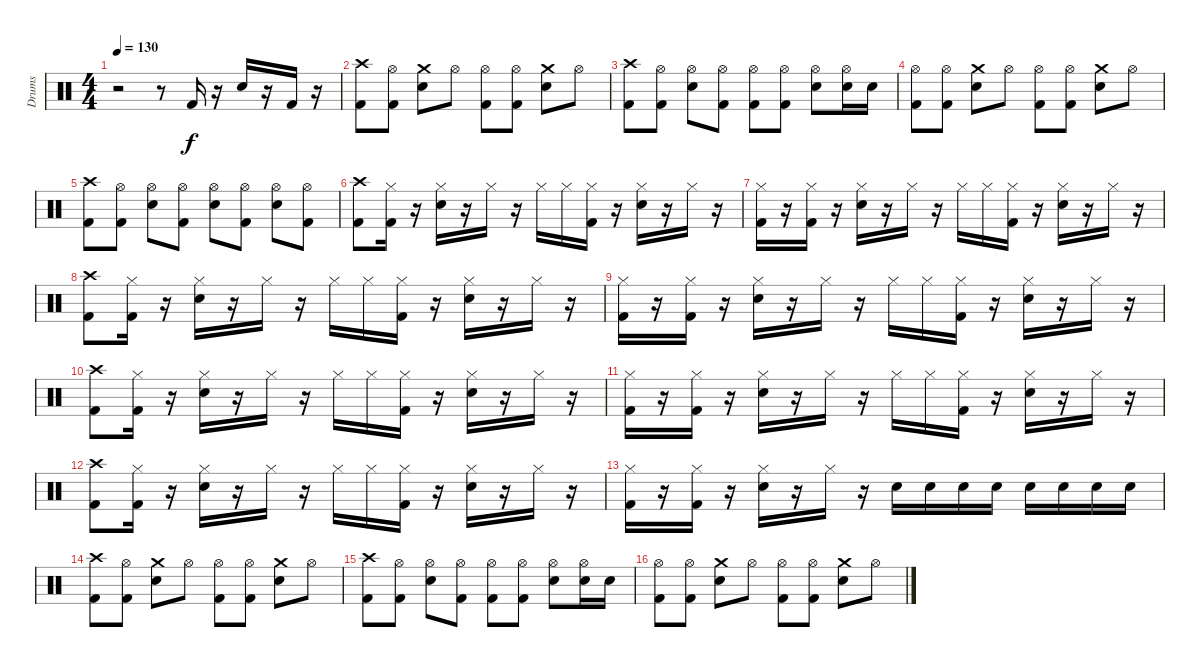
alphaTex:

\track ("Drums" "Drums") {instrument percussion}
\staff {score}
\articulation defaults
\ts (4 4)
\tempo 130
\clef neutral
\ks c
r.2{dy f} r.8 "Kick (hit) 2".16 r.16 "Electric Snare (hit)".16 r.16 "Kick (hit) 2".16 r.16 |
("Kick (hit) 2" "Crash high (hit)").8 ("Kick (hit) 2" "Hi-Hat (open)").8 ("Electric Snare (hit)" "Crash medium (hit)").8 "Hi-Hat (open)".8 ("Kick (hit) 2" "Hi-Hat (open)").8 ("Kick (hit) 2" "Hi-Hat (open)").8 ("Electric Snare (hit)" "Crash medium (hit)").8 "Hi-Hat (open)".8 |
("Kick (hit) 2" "Crash high (hit)").8 ("Kick (hit) 2" "Hi-Hat (open)").8 ("Electric Snare (hit)" "Hi-Hat (open)").8 ("Kick (hit) 2" "Hi-Hat (open)").8 ("Kick (hit) 2" "Hi-Hat (open)").8 ("Kick (hit) 2" "Hi-Hat (open)").8 ("Electric Snare (hit)" "Hi-Hat (open)").8 ("Electric Snare (hit)" "Hi-Hat (open)").16 "Electric Snare (hit)".16 |
("Kick (hit) 2" "Hi-Hat (open)").8 ("Kick (hit) 2" "Hi-Hat (open)").8 ("Electric Snare (hit)" "Crash medium (hit)").8 "Hi-Hat (open)".8 ("Kick (hit) 2" "Hi-Hat (open)").8 ("Kick (hit) 2" "Hi-Hat (open)").8 ("Electric Snare (hit)" "Crash medium (hit)").8 "Hi-Hat (open)".8 |
("Kick (hit) 2" "Crash high (hit)").8 ("Kick (hit) 2" "Hi-Hat (open)").8 ("Electric Snare (hit)" "Hi-Hat (open)").8 ("Kick (hit) 2" "Hi-Hat (open)").8 ("Electric Snare (hit)" "Hi-Hat (open)").8 ("Kick (hit) 2" "Hi-Hat (open)").8 ("Electric Snare (hit)" "Hi-Hat (open)").8 ("Kick (hit) 2" "Hi-Hat (open)").8 |
("Kick (hit) 2" "Crash high (hit)").8 ("Kick (hit) 2" "Hi-Hat (closed)").16 r.16 ("Electric Snare (hit)" "Hi-Hat (closed)").16 r.16 "Hi-Hat (closed)".16 r.16 "Hi-Hat (closed)".16 "Hi-Hat (closed)".16 ("Kick (hit) 2" "Hi-Hat (closed)").16 r.16 ("Electric Snare (hit)" "Hi-Hat (closed)").16 r.16 "Hi-Hat (closed)".16 r.16 |
("Kick (hit) 2" "Hi-Hat (closed)").16 r.16 ("Kick (hit) 2" "Hi-Hat (closed)").16 r.16 ("Electric Snare (hit)" "Hi-Hat (closed)").16 r.16 "Hi-Hat (closed)".16 r.16 "Hi-Hat (closed)".16 "Hi-Hat (closed)".16 ("Kick (hit) 2" "Hi-Hat (closed)").16 r.16 ("Electric Snare (hit)" "Hi-Hat (closed)").16 r.16 "Hi-Hat (closed)".16 r.16 |
("Kick (hit) 2" "Crash high (hit)").8 ("Kick (hit) 2" "Hi-Hat (closed)").16 r.16 ("Electric Snare (hit)" "Hi-Hat (closed)").16 r.16 "Hi-Hat (closed)".16 r.16 "Hi-Hat (closed)".16 "Hi-Hat (closed)".16 ("Kick (hit) 2" "Hi-Hat (closed)").16 r.16 ("Electric Snare (hit)" "Hi-Hat (closed)").16 r.16 "Hi-Hat (closed)".16 r.16 |
("Kick (hit) 2" "Hi-Hat (closed)").16 r.16 ("Kick (hit) 2" "Hi-Hat (closed)").16 r.16 ("Electric Snare (hit)" "Hi-Hat (closed)").16 r.16 "Hi-Hat (closed)".16 r.16 "Hi-Hat (closed)".16 "Hi-Hat (closed)".16 ("Kick (hit) 2" "Hi-Hat (closed)").16 r.16 ("Electric Snare (hit)" "Hi-Hat (closed)").16 r.16 "Hi-Hat (closed)".16 r.16 |
("Kick (hit) 2" "Crash high (hit)").8 ("Kick (hit) 2" "Hi-Hat (closed)").16 r.16 ("Electric Snare (hit)" "Hi-Hat (closed)").16 r.16 "Hi-Hat (closed)".16 r.16 "Hi-Hat (closed)".16 "Hi-Hat (closed)".16 ("Kick (hit) 2" "Hi-Hat (closed)").16 r.16 ("Electric Snare (hit)" "Hi-Hat (closed)").16 r.16 "Hi-Hat (closed)".16 r.16 |
("Kick (hit) 2" "Hi-Hat (closed)").16 r.16 ("Kick (hit) 2" "Hi-Hat (closed)").16 r.16 ("Electric Snare (hit)" "Hi-Hat (closed)").16 r.16 "Hi-Hat (closed)".16 r.16 "Hi-Hat (closed)".16 "Hi-Hat (closed)".16 ("Kick (hit) 2" "Hi-Hat (closed)").16 r.16 ("Electric Snare (hit)" "Hi-Hat (closed)").16 r.16 "Hi-Hat (closed)".16 r.16 |
("Kick (hit) 2" "Crash high (hit)").8 ("Kick (hit) 2" "Hi-Hat (closed)").16 r.16 ("Electric Snare (hit)" "Hi-Hat (closed)").16 r.16 "Hi-Hat (closed)".16 r.16 "Hi-Hat (closed)".16 "Hi-Hat (closed)".16 ("Kick (hit) 2" "Hi-Hat (closed)").16 r.16 ("Electric Snare (hit)" "Hi-Hat (closed)").16 r.16 "Hi-Hat (closed)".16 r.16 |
("Kick (hit) 2" "Hi-Hat (closed)").16 r.16 ("Kick (hit) 2" "Hi-Hat (closed)").16 r.16 ("Electric Snare (hit)" "Hi-Hat (closed)").16 r.16 "Hi-Hat (closed)".16 r.16 "Electric Snare (hit)".16 "Electric Snare (hit)".16 "Electric Snare (hit)".16 "Electric Snare (hit)".16 "Electric Snare (hit)".16 "Electric Snare (hit)".16 "Electric Snare (hit)".16 "Electric Snare (hit)".16 |
("Kick (hit) 2" "Crash high (hit)").8 ("Kick (hit) 2" "Hi-Hat (open)").8 ("Electric Snare (hit)" "Crash medium (hit)").8 "Hi-Hat (open)".8 ("Kick (hit) 2" "Hi-Hat (open)").8 ("Kick (hit) 2" "Hi-Hat (open)").8 ("Electric Snare (hit)" "Crash medium (hit)").8 "Hi-Hat (open)".8 |
("Kick (hit) 2" "Crash high (hit)").8 ("Kick (hit) 2" "Hi-Hat (open)").8 ("Electric Snare (hit)" "Hi-Hat (open)").8 ("Kick (hit) 2" "Hi-Hat (open)").8 ("Kick (hit) 2" "Hi-Hat (open)").8 ("Kick (hit) 2" "Hi-Hat (open)").8 ("Electric Snare (hit)" "Hi-Hat (open)").8 ("Electric Snare (hit)" "Hi-Hat (open)").16 "Electric Snare (hit)".16 |
("Kick (hit) 2" "Hi-Hat (open)").8 ("Kick (hit) 2" "Hi-Hat (open)").8 ("Electric Snare (hit)" "Crash medium (hit)").8 "Hi-Hat (open)".8 ("Kick (hit) 2" "Hi-Hat (open)").8 ("Kick (hit) 2" "Hi-Hat (open)").8 ("Electric Snare (hit)" "Crash medium (hit)").8 "Hi-Hat (open)".8
